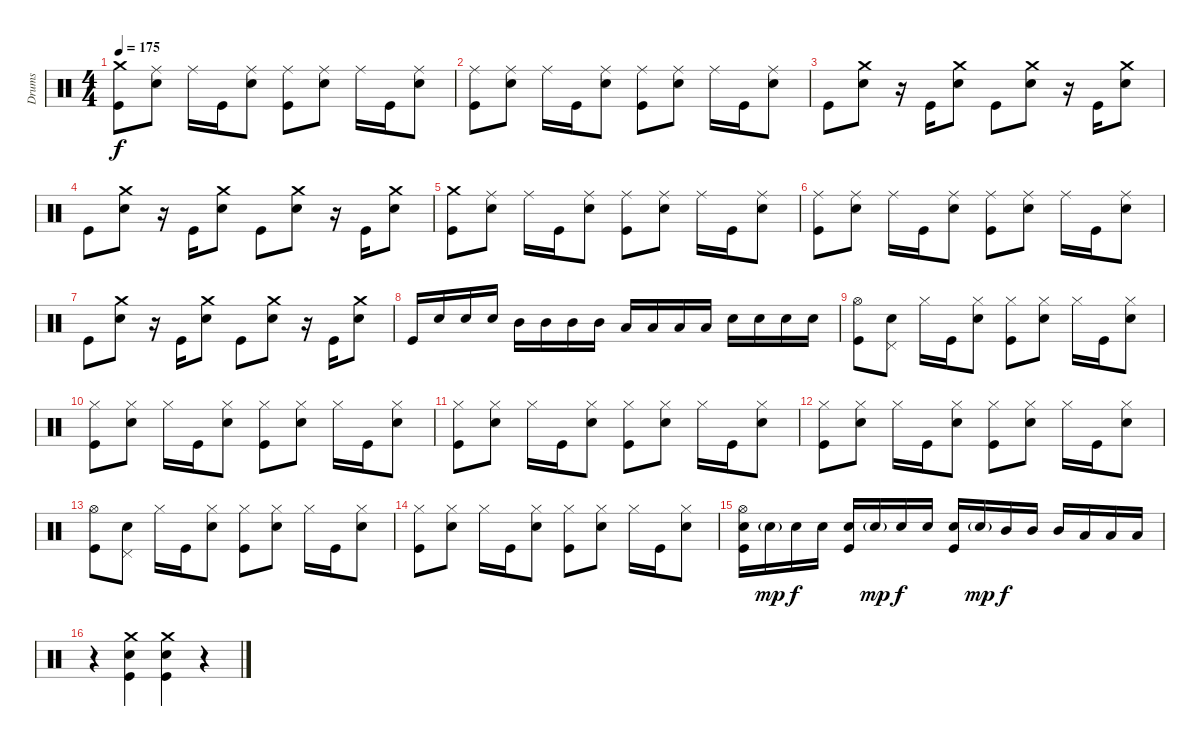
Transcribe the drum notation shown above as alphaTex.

\track ("Drums" "Drums") {instrument percussion}
\staff {score}
\articulation defaults
\ts (4 4)
\tempo 175
\clef neutral
\ks c
("Crash medium (hit)" "Kick (hit)").8{dy f} ("Ride (middle)" "Electric Snare (hit)").8 "Ride (middle)".16 "Kick (hit)".16 ("Ride (middle)" "Electric Snare (hit)").8 ("Ride (middle)" "Kick (hit)").8 ("Ride (middle)" "Electric Snare (hit)").8 "Ride (middle)".16 "Kick (hit)".16 ("Ride (middle)" "Electric Snare (hit)").8 |
("Ride (middle)" "Kick (hit)").8 ("Ride (middle)" "Electric Snare (hit)").8 "Ride (middle)".16 "Kick (hit)".16 ("Ride (middle)" "Electric Snare (hit)").8 ("Ride (middle)" "Kick (hit)").8 ("Ride (middle)" "Electric Snare (hit)").8 "Ride (middle)".16 "Kick (hit)".16 ("Ride (middle)" "Electric Snare (hit)").8 |
"Kick (hit)".8 ("Crash medium (hit)" "Electric Snare (hit)").8 r.16 "Kick (hit)".16 ("Crash medium (hit)" "Electric Snare (hit)").8 "Kick (hit)".8 ("Crash medium (hit)" "Electric Snare (hit)").8 r.16 "Kick (hit)".16 ("Crash medium (hit)" "Electric Snare (hit)").8 |
"Kick (hit)".8 ("Crash medium (hit)" "Electric Snare (hit)").8 r.16 "Kick (hit)".16 ("Crash medium (hit)" "Electric Snare (hit)").8 "Kick (hit)".8 ("Crash medium (hit)" "Electric Snare (hit)").8 r.16 "Kick (hit)".16 ("Crash medium (hit)" "Electric Snare (hit)").8 |
("Crash medium (hit)" "Kick (hit)").8 ("Ride (middle)" "Electric Snare (hit)").8 "Ride (middle)".16 "Kick (hit)".16 ("Ride (middle)" "Electric Snare (hit)").8 ("Ride (middle)" "Kick (hit)").8 ("Ride (middle)" "Electric Snare (hit)").8 "Ride (middle)".16 "Kick (hit)".16 ("Ride (middle)" "Electric Snare (hit)").8 |
("Ride (middle)" "Kick (hit)").8 ("Ride (middle)" "Electric Snare (hit)").8 "Ride (middle)".16 "Kick (hit)".16 ("Ride (middle)" "Electric Snare (hit)").8 ("Ride (middle)" "Kick (hit)").8 ("Ride (middle)" "Electric Snare (hit)").8 "Ride (middle)".16 "Kick (hit)".16 ("Ride (middle)" "Electric Snare (hit)").8 |
"Kick (hit)".8 ("Crash medium (hit)" "Electric Snare (hit)").8 r.16 "Kick (hit)".16 ("Crash medium (hit)" "Electric Snare (hit)").8 "Kick (hit)".8 ("Crash medium (hit)" "Electric Snare (hit)").8 r.16 "Kick (hit)".16 ("Crash medium (hit)" "Electric Snare (hit)").8 |
"Kick (hit)".16 "Electric Snare (hit)".16 "Electric Snare (hit)".16 "Electric Snare (hit)".16 "Mid Tom (hit)".16 "Mid Tom (hit)".16 "Mid Tom (hit)".16 "Mid Tom (hit)".16 "Low Tom (hit)".16 "Low Tom (hit)".16 "Low Tom (hit)".16 "Low Tom (hit)".16 "Electric Snare (hit)".16 "Electric Snare (hit)".16 "Electric Snare (hit)".16 "Electric Snare (hit)".16 |
("Hi-Hat (open)" "Kick (hit)").8 ("Pedal Hi-Hat (hit)" "Electric Snare (hit)").8 "Hi-Hat (closed)".16 "Kick (hit)".16 ("Hi-Hat (closed)" "Electric Snare (hit)").8 ("Hi-Hat (closed)" "Kick (hit)").8 ("Hi-Hat (closed)" "Electric Snare (hit)").8 "Hi-Hat (closed)".16 "Kick (hit)".16 ("Hi-Hat (closed)" "Electric Snare (hit)").8 |
("Hi-Hat (closed)" "Kick (hit)").8 ("Hi-Hat (closed)" "Electric Snare (hit)").8 "Hi-Hat (closed)".16 "Kick (hit)".16 ("Hi-Hat (closed)" "Electric Snare (hit)").8 ("Hi-Hat (closed)" "Kick (hit)").8 ("Hi-Hat (closed)" "Electric Snare (hit)").8 "Hi-Hat (closed)".16 "Kick (hit)".16 ("Hi-Hat (closed)" "Electric Snare (hit)").8 |
("Hi-Hat (closed)" "Kick (hit)").8 ("Hi-Hat (closed)" "Electric Snare (hit)").8 "Hi-Hat (closed)".16 "Kick (hit)".16 ("Hi-Hat (closed)" "Electric Snare (hit)").8 ("Hi-Hat (closed)" "Kick (hit)").8 ("Hi-Hat (closed)" "Electric Snare (hit)").8 "Hi-Hat (closed)".16 "Kick (hit)".16 ("Hi-Hat (closed)" "Electric Snare (hit)").8 |
("Hi-Hat (closed)" "Kick (hit)").8 ("Hi-Hat (closed)" "Electric Snare (hit)").8 "Hi-Hat (closed)".16 "Kick (hit)".16 ("Hi-Hat (closed)" "Electric Snare (hit)").8 ("Hi-Hat (closed)" "Kick (hit)").8 ("Hi-Hat (closed)" "Electric Snare (hit)").8 "Hi-Hat (closed)".16 "Kick (hit)".16 ("Hi-Hat (closed)" "Electric Snare (hit)").8 |
("Hi-Hat (open)" "Kick (hit)").8 ("Pedal Hi-Hat (hit)" "Electric Snare (hit)").8 "Hi-Hat (closed)".16 "Kick (hit)".16 ("Hi-Hat (closed)" "Electric Snare (hit)").8 ("Hi-Hat (closed)" "Kick (hit)").8 ("Hi-Hat (closed)" "Electric Snare (hit)").8 "Hi-Hat (closed)".16 "Kick (hit)".16 ("Hi-Hat (closed)" "Electric Snare (hit)").8 |
("Hi-Hat (closed)" "Kick (hit)").8 ("Hi-Hat (closed)" "Electric Snare (hit)").8 "Hi-Hat (closed)".16 "Kick (hit)".16 ("Hi-Hat (closed)" "Electric Snare (hit)").8 ("Hi-Hat (closed)" "Kick (hit)").8 ("Hi-Hat (closed)" "Electric Snare (hit)").8 "Hi-Hat (closed)".16 "Kick (hit)".16 ("Hi-Hat (closed)" "Electric Snare (hit)").8 |
("Hi-Hat (open)" "Electric Snare (hit)" "Kick (hit)").16 "Electric Snare (hit)"{g}.16{dy mp} "Electric Snare (hit)".16{dy f} "Electric Snare (hit)".16 ("Electric Snare (hit)" "Kick (hit)").16 "Electric Snare (hit)"{g}.16{dy mp} "Electric Snare (hit)".16{dy f} "Electric Snare (hit)".16 ("Electric Snare (hit)" "Kick (hit)").16 "Electric Snare (hit)"{g}.16{dy mp} "Mid Tom (hit)".16{dy f} "Mid Tom (hit)".16 "Mid Tom (hit)".16 "Low Tom (hit)".16 "Low Tom (hit)".16 "Low Tom (hit)".16 |
r.4 ("Crash medium (hit)" "Snare (hit) 2" "Kick (hit)").4 ("Crash medium (hit)" "Snare (hit) 2" "Kick (hit)").4 r.4
